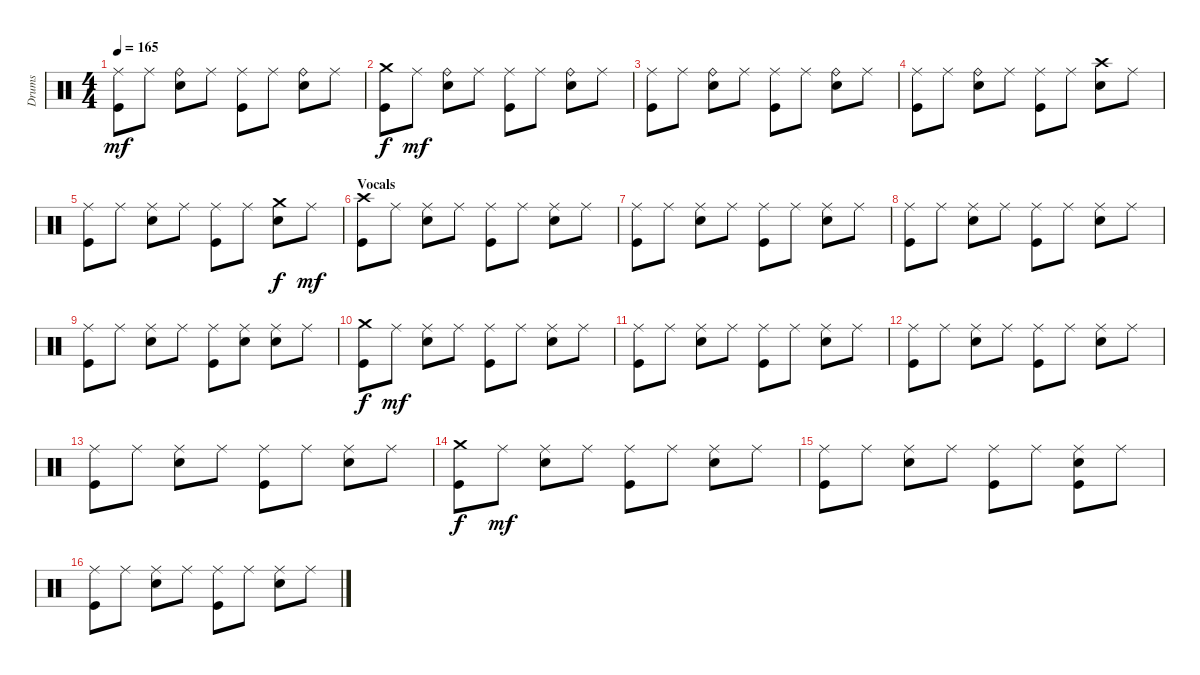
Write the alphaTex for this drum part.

\track ("Drums" "Drums") {instrument percussion}
\staff {score}
\articulation defaults
\ts (4 4)
\tempo 165
\clef neutral
\ks c
("Ride (middle)" "Kick (hit)").8{dy mf} "Ride (middle)".8 ("Ride (bell)" "Electric Snare (hit)").8 "Ride (middle)".8 ("Ride (middle)" "Kick (hit)").8 "Ride (middle)".8 ("Ride (bell)" "Electric Snare (hit)").8 "Ride (middle)".8 |
("Crash medium (hit)" "Kick (hit)").8{dy f} "Ride (middle)".8{dy mf} ("Ride (bell)" "Electric Snare (hit)").8 "Ride (middle)".8 ("Ride (middle)" "Kick (hit)").8 "Ride (middle)".8 ("Ride (bell)" "Electric Snare (hit)").8 "Ride (middle)".8 |
("Ride (middle)" "Kick (hit)").8 "Ride (middle)".8 ("Ride (bell)" "Electric Snare (hit)").8 "Ride (middle)".8 ("Ride (middle)" "Kick (hit)").8 "Ride (middle)".8 ("Ride (bell)" "Electric Snare (hit)").8 "Ride (middle)".8 |
("Ride (middle)" "Kick (hit)").8 "Ride (middle)".8 ("Ride (bell)" "Electric Snare (hit)").8 "Ride (middle)".8 ("Ride (middle)" "Kick (hit)").8 "Ride (middle)".8 ("Crash high (hit)" "Electric Snare (hit)").8 "Ride (middle)".8 |
("Ride (middle)" "Kick (hit)").8 "Ride (middle)".8 ("Ride (middle)" "Electric Snare (hit)").8 "Ride (middle)".8 ("Ride (middle)" "Kick (hit)").8 "Ride (middle)".8 ("Crash medium (hit)" "Electric Snare (hit)").8{dy f} "Ride (middle)".8{dy mf} |
\section ("" "Vocals")
("Crash high (hit)" "Kick (hit)").8 "Ride (middle)".8 ("Ride (middle)" "Electric Snare (hit)").8 "Ride (middle)".8 ("Ride (middle)" "Kick (hit)").8 "Ride (middle)".8 ("Ride (middle)" "Electric Snare (hit)").8 "Ride (middle)".8 |
("Ride (middle)" "Kick (hit)").8 "Ride (middle)".8 ("Ride (middle)" "Electric Snare (hit)").8 "Ride (middle)".8 ("Ride (middle)" "Kick (hit)").8 "Ride (middle)".8 ("Ride (middle)" "Electric Snare (hit)").8 "Ride (middle)".8 |
("Ride (middle)" "Kick (hit)").8 "Ride (middle)".8 ("Ride (middle)" "Electric Snare (hit)").8 "Ride (middle)".8 ("Ride (middle)" "Kick (hit)").8 "Ride (middle)".8 ("Ride (middle)" "Electric Snare (hit)").8 "Ride (middle)".8 |
("Ride (middle)" "Kick (hit)").8 "Ride (middle)".8 ("Ride (middle)" "Electric Snare (hit)").8 "Ride (middle)".8 ("Ride (middle)" "Kick (hit)").8 ("Ride (middle)" "Electric Snare (hit)").8 ("Ride (middle)" "Electric Snare (hit)").8 "Ride (middle)".8 |
("Crash medium (hit)" "Kick (hit)").8{dy f} "Ride (middle)".8{dy mf} ("Ride (middle)" "Electric Snare (hit)").8 "Ride (middle)".8 ("Ride (middle)" "Kick (hit)").8 "Ride (middle)".8 ("Ride (middle)" "Electric Snare (hit)").8 "Ride (middle)".8 |
("Ride (middle)" "Kick (hit)").8 "Ride (middle)".8 ("Ride (middle)" "Electric Snare (hit)").8 "Ride (middle)".8 ("Ride (middle)" "Kick (hit)").8 "Ride (middle)".8 ("Ride (middle)" "Electric Snare (hit)").8 "Ride (middle)".8 |
("Ride (middle)" "Kick (hit)").8 "Ride (middle)".8 ("Ride (middle)" "Electric Snare (hit)").8 "Ride (middle)".8 ("Ride (middle)" "Kick (hit)").8 "Ride (middle)".8 ("Ride (middle)" "Electric Snare (hit)").8 "Ride (middle)".8 |
("Ride (middle)" "Kick (hit)").8 "Ride (middle)".8 ("Ride (middle)" "Electric Snare (hit)").8 "Ride (middle)".8 ("Ride (middle)" "Kick (hit)").8 "Ride (middle)".8 ("Ride (middle)" "Electric Snare (hit)").8 "Ride (middle)".8 |
("Crash medium (hit)" "Kick (hit)").8{dy f} "Ride (middle)".8{dy mf} ("Ride (middle)" "Electric Snare (hit)").8 "Ride (middle)".8 ("Ride (middle)" "Kick (hit)").8 "Ride (middle)".8 ("Ride (middle)" "Electric Snare (hit)").8 "Ride (middle)".8 |
("Ride (middle)" "Kick (hit)").8 "Ride (middle)".8 ("Ride (middle)" "Electric Snare (hit)").8 "Ride (middle)".8 ("Ride (middle)" "Kick (hit)").8 "Ride (middle)".8 ("Ride (middle)" "Electric Snare (hit)" "Kick (hit)").8 "Ride (middle)".8 |
("Ride (middle)" "Kick (hit)").8 "Ride (middle)".8 ("Ride (middle)" "Electric Snare (hit)").8 "Ride (middle)".8 ("Ride (middle)" "Kick (hit)").8 "Ride (middle)".8 ("Ride (middle)" "Electric Snare (hit)").8 "Ride (middle)".8
